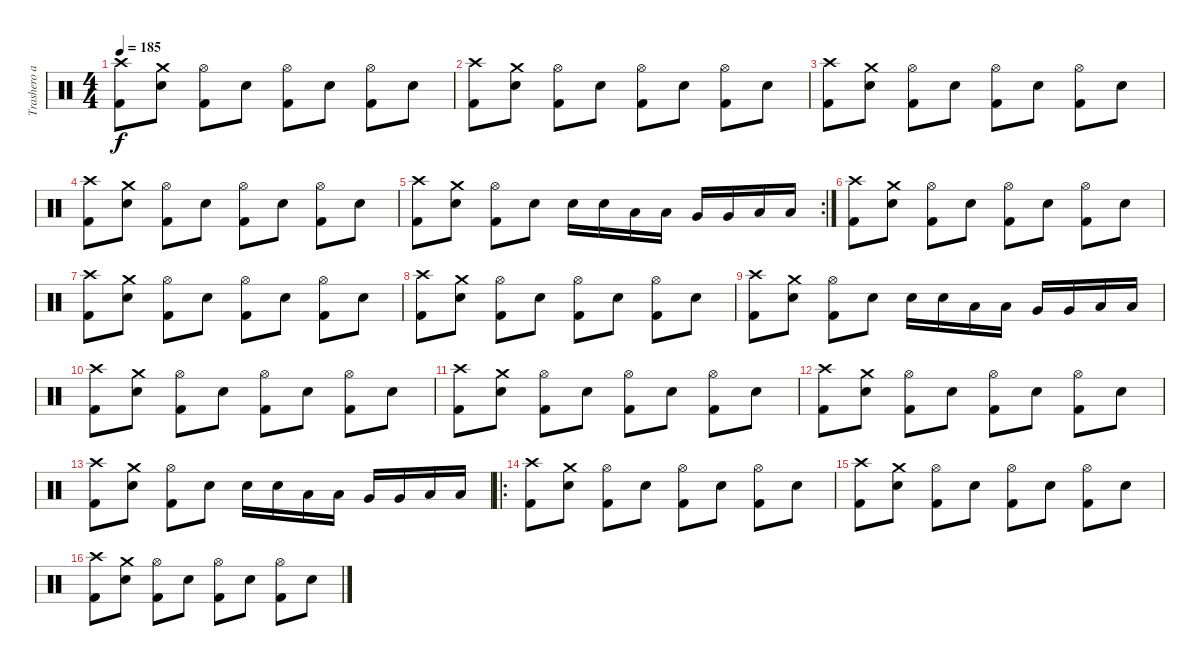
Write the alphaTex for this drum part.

\track ("Trashero al peo" "Trashero a") {instrument percussion}
\staff {score}
\articulation defaults
\ts (4 4)
\tempo 185
\clef neutral
\ks c
("Crash high (hit)" "Kick (hit) 2").8{dy f} ("Crash medium (hit)" "Electric Snare (hit)").8 ("Kick (hit) 2" "Hi-Hat (open)").8 "Electric Snare (hit)".8 ("Kick (hit) 2" "Hi-Hat (open)").8 "Electric Snare (hit)".8 ("Kick (hit) 2" "Hi-Hat (open)").8 "Electric Snare (hit)".8 |
("Crash high (hit)" "Kick (hit) 2").8 ("Crash medium (hit)" "Electric Snare (hit)").8 ("Kick (hit) 2" "Hi-Hat (open)").8 "Electric Snare (hit)".8 ("Kick (hit) 2" "Hi-Hat (open)").8 "Electric Snare (hit)".8 ("Kick (hit) 2" "Hi-Hat (open)").8 "Electric Snare (hit)".8 |
("Crash high (hit)" "Kick (hit) 2").8 ("Crash medium (hit)" "Electric Snare (hit)").8 ("Kick (hit) 2" "Hi-Hat (open)").8 "Electric Snare (hit)".8 ("Kick (hit) 2" "Hi-Hat (open)").8 "Electric Snare (hit)".8 ("Kick (hit) 2" "Hi-Hat (open)").8 "Electric Snare (hit)".8 |
("Crash high (hit)" "Kick (hit) 2").8 ("Crash medium (hit)" "Electric Snare (hit)").8 ("Kick (hit) 2" "Hi-Hat (open)").8 "Electric Snare (hit)".8 ("Kick (hit) 2" "Hi-Hat (open)").8 "Electric Snare (hit)".8 ("Kick (hit) 2" "Hi-Hat (open)").8 "Electric Snare (hit)".8 |
\rc 2
("Crash high (hit)" "Kick (hit) 2").8 ("Crash medium (hit)" "Electric Snare (hit)").8 ("Kick (hit) 2" "Hi-Hat (open)").8 "Electric Snare (hit)".8 "Electric Snare (hit)".16 "Electric Snare (hit)".16 "Low Floor Tom (hit)".16 "Low Floor Tom (hit)".16 "Very Low Tom (hit)".16 "Very Low Tom (hit)".16 "Low Tom (hit)".16 "Low Tom (hit)".16 |
("Crash high (hit)" "Kick (hit) 2").8 ("Crash medium (hit)" "Electric Snare (hit)").8 ("Kick (hit) 2" "Hi-Hat (open)").8 "Electric Snare (hit)".8 ("Kick (hit) 2" "Hi-Hat (open)").8 "Electric Snare (hit)".8 ("Kick (hit) 2" "Hi-Hat (open)").8 "Electric Snare (hit)".8 |
("Crash high (hit)" "Kick (hit) 2").8 ("Crash medium (hit)" "Electric Snare (hit)").8 ("Kick (hit) 2" "Hi-Hat (open)").8 "Electric Snare (hit)".8 ("Kick (hit) 2" "Hi-Hat (open)").8 "Electric Snare (hit)".8 ("Kick (hit) 2" "Hi-Hat (open)").8 "Electric Snare (hit)".8 |
("Crash high (hit)" "Kick (hit) 2").8 ("Crash medium (hit)" "Electric Snare (hit)").8 ("Kick (hit) 2" "Hi-Hat (open)").8 "Electric Snare (hit)".8 ("Kick (hit) 2" "Hi-Hat (open)").8 "Electric Snare (hit)".8 ("Kick (hit) 2" "Hi-Hat (open)").8 "Electric Snare (hit)".8 |
("Crash high (hit)" "Kick (hit) 2").8 ("Crash medium (hit)" "Electric Snare (hit)").8 ("Kick (hit) 2" "Hi-Hat (open)").8 "Electric Snare (hit)".8 "Electric Snare (hit)".16 "Electric Snare (hit)".16 "Low Floor Tom (hit)".16 "Low Floor Tom (hit)".16 "Very Low Tom (hit)".16 "Very Low Tom (hit)".16 "Low Tom (hit)".16 "Low Tom (hit)".16 |
("Crash high (hit)" "Kick (hit) 2").8 ("Crash medium (hit)" "Electric Snare (hit)").8 ("Kick (hit) 2" "Hi-Hat (open)").8 "Electric Snare (hit)".8 ("Kick (hit) 2" "Hi-Hat (open)").8 "Electric Snare (hit)".8 ("Kick (hit) 2" "Hi-Hat (open)").8 "Electric Snare (hit)".8 |
("Crash high (hit)" "Kick (hit) 2").8 ("Crash medium (hit)" "Electric Snare (hit)").8 ("Kick (hit) 2" "Hi-Hat (open)").8 "Electric Snare (hit)".8 ("Kick (hit) 2" "Hi-Hat (open)").8 "Electric Snare (hit)".8 ("Kick (hit) 2" "Hi-Hat (open)").8 "Electric Snare (hit)".8 |
("Crash high (hit)" "Kick (hit) 2").8 ("Crash medium (hit)" "Electric Snare (hit)").8 ("Kick (hit) 2" "Hi-Hat (open)").8 "Electric Snare (hit)".8 ("Kick (hit) 2" "Hi-Hat (open)").8 "Electric Snare (hit)".8 ("Kick (hit) 2" "Hi-Hat (open)").8 "Electric Snare (hit)".8 |
("Crash high (hit)" "Kick (hit) 2").8 ("Crash medium (hit)" "Electric Snare (hit)").8 ("Kick (hit) 2" "Hi-Hat (open)").8 "Electric Snare (hit)".8 "Electric Snare (hit)".16 "Electric Snare (hit)".16 "Low Floor Tom (hit)".16 "Low Floor Tom (hit)".16 "Very Low Tom (hit)".16 "Very Low Tom (hit)".16 "Low Tom (hit)".16 "Low Tom (hit)".16 |
\ro
("Crash high (hit)" "Kick (hit) 2").8 ("Crash medium (hit)" "Electric Snare (hit)").8 ("Kick (hit) 2" "Hi-Hat (open)").8 "Electric Snare (hit)".8 ("Kick (hit) 2" "Hi-Hat (open)").8 "Electric Snare (hit)".8 ("Kick (hit) 2" "Hi-Hat (open)").8 "Electric Snare (hit)".8 |
("Crash high (hit)" "Kick (hit) 2").8 ("Crash medium (hit)" "Electric Snare (hit)").8 ("Kick (hit) 2" "Hi-Hat (open)").8 "Electric Snare (hit)".8 ("Kick (hit) 2" "Hi-Hat (open)").8 "Electric Snare (hit)".8 ("Kick (hit) 2" "Hi-Hat (open)").8 "Electric Snare (hit)".8 |
("Crash high (hit)" "Kick (hit) 2").8 ("Crash medium (hit)" "Electric Snare (hit)").8 ("Kick (hit) 2" "Hi-Hat (open)").8 "Electric Snare (hit)".8 ("Kick (hit) 2" "Hi-Hat (open)").8 "Electric Snare (hit)".8 ("Kick (hit) 2" "Hi-Hat (open)").8 "Electric Snare (hit)".8
